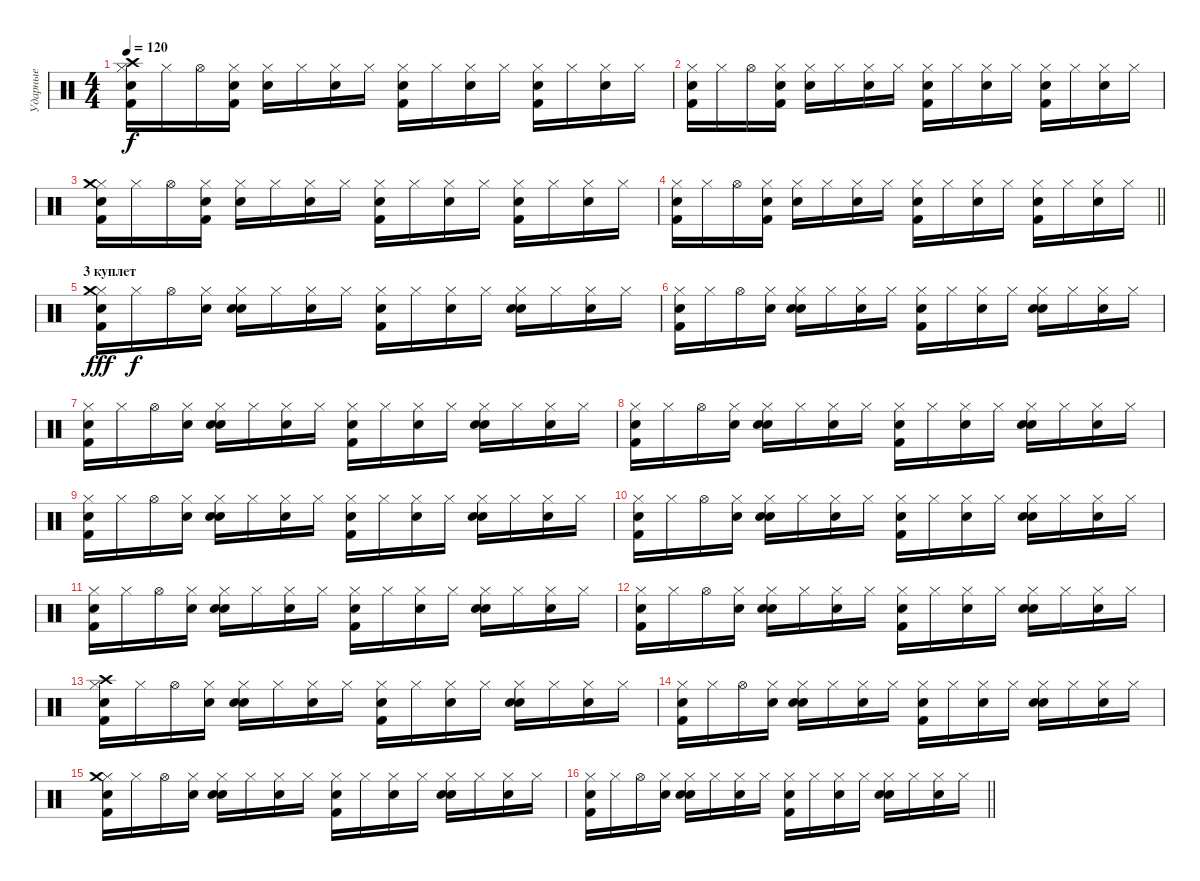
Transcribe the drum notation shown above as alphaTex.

\track ("Ударные" "Ударные") {instrument percussion}
\staff {score}
\articulation defaults
\ts (4 4)
\tempo 120
\clef neutral
\ks c
("Hi-Hat (closed)" "Snare (hit) 2" "Kick (hit) 2" "Crash high (hit)").16{dy f} "Hi-Hat (closed)".16 "Hi-Hat (open)".16 ("Hi-Hat (closed)" "Snare (hit) 2" "Kick (hit) 2").16 ("Hi-Hat (closed)" "Snare (hit) 2").16 "Hi-Hat (closed)".16 ("Hi-Hat (closed)" "Snare (hit) 2").16 "Hi-Hat (closed)".16 ("Hi-Hat (closed)" "Snare (hit) 2" "Kick (hit) 2").16 "Hi-Hat (closed)".16 ("Hi-Hat (closed)" "Snare (hit) 2").16 "Hi-Hat (closed)".16 ("Hi-Hat (closed)" "Snare (hit) 2" "Kick (hit) 2").16 "Hi-Hat (closed)".16 ("Hi-Hat (closed)" "Snare (hit) 2").16 "Hi-Hat (closed)".16 |
("Hi-Hat (closed)" "Snare (hit) 2" "Kick (hit) 2").16 "Hi-Hat (closed)".16 "Hi-Hat (open)".16 ("Hi-Hat (closed)" "Snare (hit) 2" "Kick (hit) 2").16 ("Hi-Hat (closed)" "Snare (hit) 2").16 "Hi-Hat (closed)".16 ("Hi-Hat (closed)" "Snare (hit) 2").16 "Hi-Hat (closed)".16 ("Hi-Hat (closed)" "Snare (hit) 2" "Kick (hit) 2").16 "Hi-Hat (closed)".16 ("Hi-Hat (closed)" "Snare (hit) 2").16 "Hi-Hat (closed)".16 ("Hi-Hat (closed)" "Snare (hit) 2" "Kick (hit) 2").16 "Hi-Hat (closed)".16 ("Hi-Hat (closed)" "Snare (hit) 2").16 "Hi-Hat (closed)".16 |
("Hi-Hat (closed)" "Snare (hit) 2" "Kick (hit) 2" "Crash medium (hit)").16 "Hi-Hat (closed)".16 "Hi-Hat (open)".16 ("Hi-Hat (closed)" "Snare (hit) 2" "Kick (hit) 2").16 ("Hi-Hat (closed)" "Snare (hit) 2").16 "Hi-Hat (closed)".16 ("Hi-Hat (closed)" "Snare (hit) 2").16 "Hi-Hat (closed)".16 ("Hi-Hat (closed)" "Snare (hit) 2" "Kick (hit) 2").16 "Hi-Hat (closed)".16 ("Hi-Hat (closed)" "Snare (hit) 2").16 "Hi-Hat (closed)".16 ("Hi-Hat (closed)" "Snare (hit) 2" "Kick (hit) 2").16 "Hi-Hat (closed)".16 ("Hi-Hat (closed)" "Snare (hit) 2").16 "Hi-Hat (closed)".16 |
\barLineRight lightlight
("Hi-Hat (closed)" "Snare (hit) 2" "Kick (hit) 2").16 "Hi-Hat (closed)".16 "Hi-Hat (open)".16 ("Hi-Hat (closed)" "Snare (hit) 2" "Kick (hit) 2").16 ("Hi-Hat (closed)" "Snare (hit) 2").16 "Hi-Hat (closed)".16 ("Hi-Hat (closed)" "Snare (hit) 2").16 "Hi-Hat (closed)".16 ("Hi-Hat (closed)" "Snare (hit) 2" "Kick (hit) 2").16 "Hi-Hat (closed)".16 ("Hi-Hat (closed)" "Snare (hit) 2").16 "Hi-Hat (closed)".16 ("Hi-Hat (closed)" "Snare (hit) 2" "Kick (hit) 2").16 "Hi-Hat (closed)".16 ("Hi-Hat (closed)" "Snare (hit) 2").16 "Hi-Hat (closed)".16 |
\section ("" "3 куплет")
("Hi-Hat (closed)" "Snare (hit) 2" "Kick (hit) 2" "Crash medium (hit)").16{dy fff} "Hi-Hat (closed)".16{dy f} "Hi-Hat (open)".16 ("Hi-Hat (closed)" "Snare (hit) 2").16 ("Hi-Hat (closed)" "Snare (hit) 2" "Electric Snare (hit)").16 "Hi-Hat (closed)".16 ("Hi-Hat (closed)" "Snare (hit) 2").16 "Hi-Hat (closed)".16 ("Hi-Hat (closed)" "Snare (hit) 2" "Kick (hit) 2").16 "Hi-Hat (closed)".16 ("Hi-Hat (closed)" "Snare (hit) 2").16 "Hi-Hat (closed)".16 ("Hi-Hat (closed)" "Snare (hit) 2" "Electric Snare (hit)").16 "Hi-Hat (closed)".16 ("Hi-Hat (closed)" "Snare (hit) 2").16 "Hi-Hat (closed)".16 |
("Hi-Hat (closed)" "Snare (hit) 2" "Kick (hit) 2").16 "Hi-Hat (closed)".16 "Hi-Hat (open)".16 ("Hi-Hat (closed)" "Snare (hit) 2").16 ("Hi-Hat (closed)" "Snare (hit) 2" "Electric Snare (hit)").16 "Hi-Hat (closed)".16 ("Hi-Hat (closed)" "Snare (hit) 2").16 "Hi-Hat (closed)".16 ("Hi-Hat (closed)" "Snare (hit) 2" "Kick (hit) 2").16 "Hi-Hat (closed)".16 ("Hi-Hat (closed)" "Snare (hit) 2").16 "Hi-Hat (closed)".16 ("Hi-Hat (closed)" "Snare (hit) 2" "Electric Snare (hit)").16 "Hi-Hat (closed)".16 ("Hi-Hat (closed)" "Snare (hit) 2").16 "Hi-Hat (closed)".16 |
("Hi-Hat (closed)" "Snare (hit) 2" "Kick (hit) 2").16 "Hi-Hat (closed)".16 "Hi-Hat (open)".16 ("Hi-Hat (closed)" "Snare (hit) 2").16 ("Hi-Hat (closed)" "Snare (hit) 2" "Electric Snare (hit)").16 "Hi-Hat (closed)".16 ("Hi-Hat (closed)" "Snare (hit) 2").16 "Hi-Hat (closed)".16 ("Hi-Hat (closed)" "Snare (hit) 2" "Kick (hit) 2").16 "Hi-Hat (closed)".16 ("Hi-Hat (closed)" "Snare (hit) 2").16 "Hi-Hat (closed)".16 ("Hi-Hat (closed)" "Snare (hit) 2" "Electric Snare (hit)").16 "Hi-Hat (closed)".16 ("Hi-Hat (closed)" "Snare (hit) 2").16 "Hi-Hat (closed)".16 |
("Hi-Hat (closed)" "Snare (hit) 2" "Kick (hit) 2").16 "Hi-Hat (closed)".16 "Hi-Hat (open)".16 ("Hi-Hat (closed)" "Snare (hit) 2").16 ("Hi-Hat (closed)" "Snare (hit) 2" "Electric Snare (hit)").16 "Hi-Hat (closed)".16 ("Hi-Hat (closed)" "Snare (hit) 2").16 "Hi-Hat (closed)".16 ("Hi-Hat (closed)" "Snare (hit) 2" "Kick (hit) 2").16 "Hi-Hat (closed)".16 ("Hi-Hat (closed)" "Snare (hit) 2").16 "Hi-Hat (closed)".16 ("Hi-Hat (closed)" "Snare (hit) 2" "Electric Snare (hit)").16 "Hi-Hat (closed)".16 ("Hi-Hat (closed)" "Snare (hit) 2").16 "Hi-Hat (closed)".16 |
("Hi-Hat (closed)" "Snare (hit) 2" "Kick (hit) 2").16 "Hi-Hat (closed)".16 "Hi-Hat (open)".16 ("Hi-Hat (closed)" "Snare (hit) 2").16 ("Hi-Hat (closed)" "Snare (hit) 2" "Electric Snare (hit)").16 "Hi-Hat (closed)".16 ("Hi-Hat (closed)" "Snare (hit) 2").16 "Hi-Hat (closed)".16 ("Hi-Hat (closed)" "Snare (hit) 2" "Kick (hit) 2").16 "Hi-Hat (closed)".16 ("Hi-Hat (closed)" "Snare (hit) 2").16 "Hi-Hat (closed)".16 ("Hi-Hat (closed)" "Snare (hit) 2" "Electric Snare (hit)").16 "Hi-Hat (closed)".16 ("Hi-Hat (closed)" "Snare (hit) 2").16 "Hi-Hat (closed)".16 |
("Hi-Hat (closed)" "Snare (hit) 2" "Kick (hit) 2").16 "Hi-Hat (closed)".16 "Hi-Hat (open)".16 ("Hi-Hat (closed)" "Snare (hit) 2").16 ("Hi-Hat (closed)" "Snare (hit) 2" "Electric Snare (hit)").16 "Hi-Hat (closed)".16 ("Hi-Hat (closed)" "Snare (hit) 2").16 "Hi-Hat (closed)".16 ("Hi-Hat (closed)" "Snare (hit) 2" "Kick (hit) 2").16 "Hi-Hat (closed)".16 ("Hi-Hat (closed)" "Snare (hit) 2").16 "Hi-Hat (closed)".16 ("Hi-Hat (closed)" "Snare (hit) 2" "Electric Snare (hit)").16 "Hi-Hat (closed)".16 ("Hi-Hat (closed)" "Snare (hit) 2").16 "Hi-Hat (closed)".16 |
("Hi-Hat (closed)" "Snare (hit) 2" "Kick (hit) 2").16 "Hi-Hat (closed)".16 "Hi-Hat (open)".16 ("Hi-Hat (closed)" "Snare (hit) 2").16 ("Hi-Hat (closed)" "Snare (hit) 2" "Electric Snare (hit)").16 "Hi-Hat (closed)".16 ("Hi-Hat (closed)" "Snare (hit) 2").16 "Hi-Hat (closed)".16 ("Hi-Hat (closed)" "Snare (hit) 2" "Kick (hit) 2").16 "Hi-Hat (closed)".16 ("Hi-Hat (closed)" "Snare (hit) 2").16 "Hi-Hat (closed)".16 ("Hi-Hat (closed)" "Snare (hit) 2" "Electric Snare (hit)").16 "Hi-Hat (closed)".16 ("Hi-Hat (closed)" "Snare (hit) 2").16 "Hi-Hat (closed)".16 |
("Hi-Hat (closed)" "Snare (hit) 2" "Kick (hit) 2").16 "Hi-Hat (closed)".16 "Hi-Hat (open)".16 ("Hi-Hat (closed)" "Snare (hit) 2").16 ("Hi-Hat (closed)" "Snare (hit) 2" "Electric Snare (hit)").16 "Hi-Hat (closed)".16 ("Hi-Hat (closed)" "Snare (hit) 2").16 "Hi-Hat (closed)".16 ("Hi-Hat (closed)" "Snare (hit) 2" "Kick (hit) 2").16 "Hi-Hat (closed)".16 ("Hi-Hat (closed)" "Snare (hit) 2").16 "Hi-Hat (closed)".16 ("Hi-Hat (closed)" "Snare (hit) 2" "Electric Snare (hit)").16 "Hi-Hat (closed)".16 ("Hi-Hat (closed)" "Snare (hit) 2").16 "Hi-Hat (closed)".16 |
("Hi-Hat (closed)" "Snare (hit) 2" "Kick (hit) 2" "Crash high (hit)").16 "Hi-Hat (closed)".16 "Hi-Hat (open)".16 ("Hi-Hat (closed)" "Snare (hit) 2").16 ("Hi-Hat (closed)" "Snare (hit) 2" "Electric Snare (hit)").16 "Hi-Hat (closed)".16 ("Hi-Hat (closed)" "Snare (hit) 2").16 "Hi-Hat (closed)".16 ("Hi-Hat (closed)" "Snare (hit) 2" "Kick (hit) 2").16 "Hi-Hat (closed)".16 ("Hi-Hat (closed)" "Snare (hit) 2").16 "Hi-Hat (closed)".16 ("Hi-Hat (closed)" "Snare (hit) 2" "Electric Snare (hit)").16 "Hi-Hat (closed)".16 ("Hi-Hat (closed)" "Snare (hit) 2").16 "Hi-Hat (closed)".16 |
("Hi-Hat (closed)" "Snare (hit) 2" "Kick (hit) 2").16 "Hi-Hat (closed)".16 "Hi-Hat (open)".16 ("Hi-Hat (closed)" "Snare (hit) 2").16 ("Hi-Hat (closed)" "Snare (hit) 2" "Electric Snare (hit)").16 "Hi-Hat (closed)".16 ("Hi-Hat (closed)" "Snare (hit) 2").16 "Hi-Hat (closed)".16 ("Hi-Hat (closed)" "Snare (hit) 2" "Kick (hit) 2").16 "Hi-Hat (closed)".16 ("Hi-Hat (closed)" "Snare (hit) 2").16 "Hi-Hat (closed)".16 ("Hi-Hat (closed)" "Snare (hit) 2" "Electric Snare (hit)").16 "Hi-Hat (closed)".16 ("Hi-Hat (closed)" "Snare (hit) 2").16 "Hi-Hat (closed)".16 |
("Hi-Hat (closed)" "Snare (hit) 2" "Kick (hit) 2" "Crash medium (hit)").16 "Hi-Hat (closed)".16 "Hi-Hat (open)".16 ("Hi-Hat (closed)" "Snare (hit) 2").16 ("Hi-Hat (closed)" "Snare (hit) 2" "Electric Snare (hit)").16 "Hi-Hat (closed)".16 ("Hi-Hat (closed)" "Snare (hit) 2").16 "Hi-Hat (closed)".16 ("Hi-Hat (closed)" "Snare (hit) 2" "Kick (hit) 2").16 "Hi-Hat (closed)".16 ("Hi-Hat (closed)" "Snare (hit) 2").16 "Hi-Hat (closed)".16 ("Hi-Hat (closed)" "Snare (hit) 2" "Electric Snare (hit)").16 "Hi-Hat (closed)".16 ("Hi-Hat (closed)" "Snare (hit) 2").16 "Hi-Hat (closed)".16 |
\barLineRight lightlight
("Hi-Hat (closed)" "Snare (hit) 2" "Kick (hit) 2").16 "Hi-Hat (closed)".16 "Hi-Hat (open)".16 ("Hi-Hat (closed)" "Snare (hit) 2").16 ("Hi-Hat (closed)" "Snare (hit) 2" "Electric Snare (hit)").16 "Hi-Hat (closed)".16 ("Hi-Hat (closed)" "Snare (hit) 2").16 "Hi-Hat (closed)".16 ("Hi-Hat (closed)" "Snare (hit) 2" "Kick (hit) 2").16 "Hi-Hat (closed)".16 ("Hi-Hat (closed)" "Snare (hit) 2").16 "Hi-Hat (closed)".16 ("Hi-Hat (closed)" "Snare (hit) 2" "Electric Snare (hit)").16 "Hi-Hat (closed)".16 ("Hi-Hat (closed)" "Snare (hit) 2").16 "Hi-Hat (closed)".16
